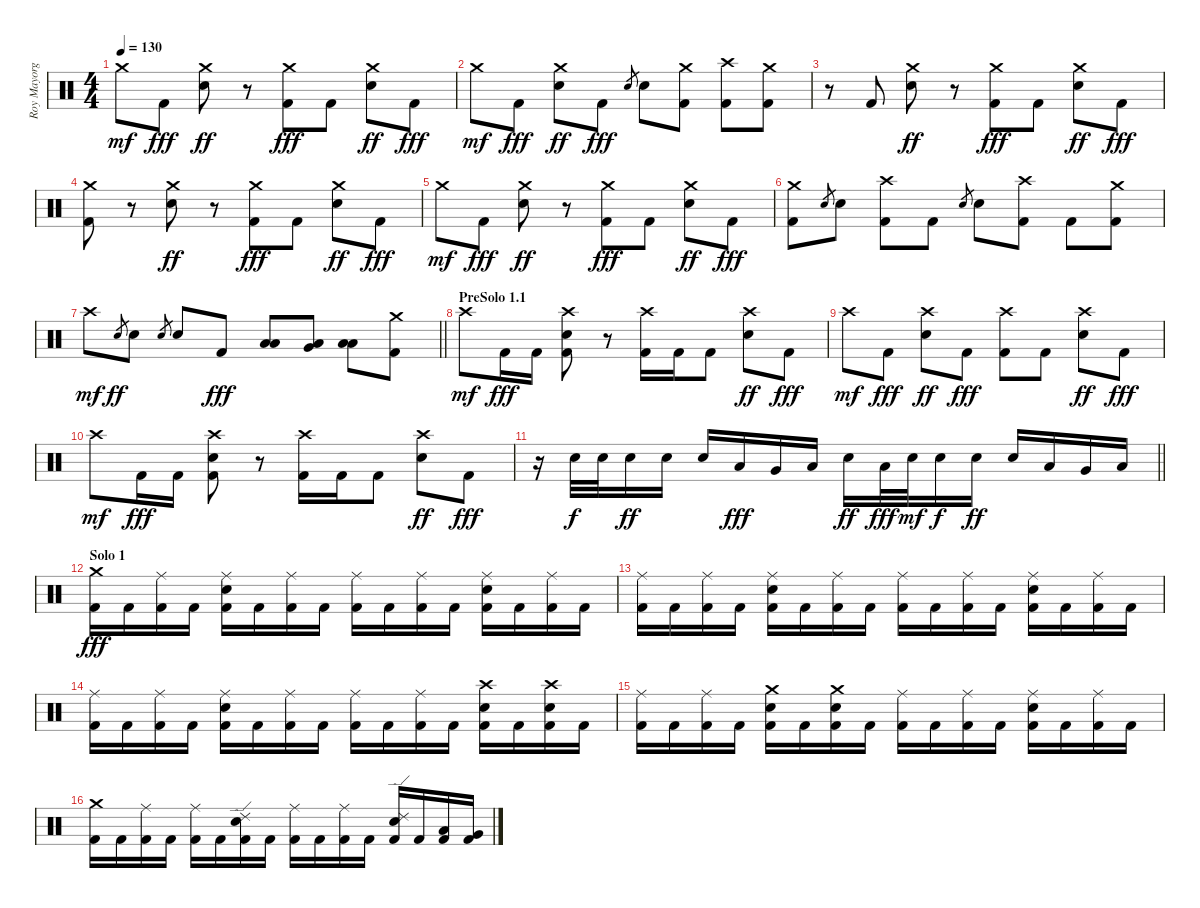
\track ("Roy Mayorga" "Roy Mayorg") {instrument percussion}
\staff {score}
\articulation defaults
\ts (4 4)
\tempo 130
\clef neutral
\ks c "Crash medium (hit)".8{dy mf} "Kick (hit) 2".8{dy fff}
("Crash medium (hit)" "Electric Snare (hit)").8{dy ff} r.8 ("Crash medium (hit)" "Kick (hit) 2").8{dy fff} "Kick (hit) 2".8 ("Crash medium (hit)" "Electric Snare (hit)").8{dy ff} "Kick (hit) 2".8{dy fff} |
"Crash medium (hit)".8{dy mf} "Kick (hit) 2".8{dy fff} ("Crash medium (hit)" "Electric Snare (hit)").8{dy ff} "Kick (hit) 2".8{dy fff} "Electric Snare (hit)".8{gr} "Electric Snare (hit)".8 ("Crash medium (hit)" "Kick (hit) 2").8 ("Crash high (hit)" "Kick (hit) 2").8 ("Crash medium (hit)" "Kick (hit) 2").8 |
r.8 "Kick (hit) 2".8 ("Crash medium (hit)" "Electric Snare (hit)").8{dy ff} r.8 ("Crash medium (hit)" "Kick (hit) 2").8{dy fff} "Kick (hit) 2".8 ("Crash medium (hit)" "Electric Snare (hit)").8{dy ff} "Kick (hit) 2".8{dy fff} |
("Crash medium (hit)" "Kick (hit) 2").8 r.8 ("Crash medium (hit)" "Electric Snare (hit)").8{dy ff} r.8 ("Crash medium (hit)" "Kick (hit) 2").8{dy fff} "Kick (hit) 2".8 ("Crash medium (hit)" "Electric Snare (hit)").8{dy ff} "Kick (hit) 2".8{dy fff} |
"Crash medium (hit)".8{dy mf} "Kick (hit) 2".8{dy fff} ("Crash medium (hit)" "Electric Snare (hit)").8{dy ff} r.8 ("Crash medium (hit)" "Kick (hit) 2").8{dy fff} "Kick (hit) 2".8 ("Crash medium (hit)" "Electric Snare (hit)").8{dy ff} "Kick (hit) 2".8{dy fff} |
("Crash medium (hit)" "Kick (hit) 2").8 "Electric Snare (hit)".8{gr} "Electric Snare (hit)".8 ("Crash high (hit)" "Kick (hit) 2").8 "Kick (hit) 2".8 "Electric Snare (hit)".8{gr} "Electric Snare (hit)".8 ("Crash high (hit)" "Kick (hit) 2").8 "Kick (hit) 2".8 ("Crash medium (hit)" "Kick (hit) 2").8 |
\barLineRight lightlight "Crash high (hit)".8{dy mf} "Electric Snare (hit)".8{gr dy ff} "Electric Snare (hit)".8 "Electric Snare (hit)".8{gr} "Electric Snare (hit)".8 "Kick (hit) 2".8{dy fff}
("Low Tom (hit)" "Low Floor Tom (hit)").8 ("Very Low Tom (hit)" "Low Floor Tom (hit)").8 ("Low Floor Tom (hit)" "Low Floor Tom (hit)").8 ("Crash medium (hit)" "Kick (hit) 2").8 |
\section ("" "PreSolo 1.1")
"Crash high (hit)".8{dy mf} "Kick (hit) 2".16{dy fff} "Kick (hit) 2".16 ("Crash high (hit)" "Electric Snare (hit)" "Kick (hit) 2").8 r.8 ("Crash high (hit)" "Kick (hit) 2").16 "Kick (hit) 2".16 "Kick (hit) 2".8 ("Crash high (hit)" "Electric Snare (hit)").8{dy ff} "Kick (hit) 2".8{dy fff} |
"Crash high (hit)".8{dy mf} "Kick (hit) 2".8{dy fff} ("Crash high (hit)" "Electric Snare (hit)").8{dy ff} "Kick (hit) 2".8{dy fff} ("Crash high (hit)" "Kick (hit) 2").8 "Kick (hit) 2".8 ("Crash high (hit)" "Electric Snare (hit)").8{dy ff} "Kick (hit) 2".8{dy fff} |
"Crash high (hit)".8{dy mf} "Kick (hit) 2".16{dy fff} "Kick (hit) 2".16 ("Crash high (hit)" "Electric Snare (hit)" "Kick (hit) 2").8 r.8 ("Crash high (hit)" "Kick (hit) 2").16 "Kick (hit) 2".16 "Kick (hit) 2".8 ("Crash high (hit)" "Electric Snare (hit)").8{dy ff} "Kick (hit) 2".8{dy fff} |
\barLineRight lightlight
r.16 "Electric Snare (hit)".32{dy f} "Electric Snare (hit)".32 "Electric Snare (hit)".16{dy ff} "Electric Snare (hit)".16 "Electric Snare (hit)".16 "Low Tom (hit)".16{dy fff} "Very Low Tom (hit)".16 "Low Floor Tom (hit)".16 "Electric Snare (hit)".16{dy ff} "Low Tom (hit)".32{dy fff} "Electric Snare (hit)".32{dy mf} "Electric Snare (hit)".16{dy f} "Electric Snare (hit)".16{dy ff} "Electric Snare (hit)".16 "Low Tom (hit)".16 "Very Low Tom (hit)".16 "Low Floor Tom (hit)".16 |
\section ("" "Solo 1")
("Crash medium (hit)" "Kick (hit) 2").16{dy fff} "Kick (hit) 2".16 ("Ride (middle)" "Kick (hit) 2").16 "Kick (hit) 2".16 ("Ride (middle)" "Electric Snare (hit)" "Kick (hit) 2").16 "Kick (hit) 2".16 ("Ride (middle)" "Kick (hit) 2").16 "Kick (hit) 2".16 ("Ride (middle)" "Kick (hit) 2").16 "Kick (hit) 2".16 ("Ride (middle)" "Kick (hit) 2").16 "Kick (hit) 2".16 ("Ride (middle)" "Electric Snare (hit)" "Kick (hit) 2").16 "Kick (hit) 2".16 ("Ride (middle)" "Kick (hit) 2").16 "Kick (hit) 2".16 |
("Ride (middle)" "Kick (hit) 2").16 "Kick (hit) 2".16 ("Ride (middle)" "Kick (hit) 2").16 "Kick (hit) 2".16 ("Ride (middle)" "Electric Snare (hit)" "Kick (hit) 2").16 "Kick (hit) 2".16 ("Ride (middle)" "Kick (hit) 2").16 "Kick (hit) 2".16 ("Ride (middle)" "Kick (hit) 2").16 "Kick (hit) 2".16 ("Ride (middle)" "Kick (hit) 2").16 "Kick (hit) 2".16 ("Ride (middle)" "Electric Snare (hit)" "Kick (hit) 2").16 "Kick (hit) 2".16 ("Ride (middle)" "Kick (hit) 2").16 "Kick (hit) 2".16 |
("Ride (middle)" "Kick (hit) 2").16 "Kick (hit) 2".16 ("Ride (middle)" "Kick (hit) 2").16 "Kick (hit) 2".16 ("Ride (middle)" "Electric Snare (hit)" "Kick (hit) 2").16 "Kick (hit) 2".16 ("Ride (middle)" "Kick (hit) 2").16 "Kick (hit) 2".16 ("Ride (middle)" "Kick (hit) 2").16 "Kick (hit) 2".16 ("Ride (middle)" "Kick (hit) 2").16 "Kick (hit) 2".16 ("Crash high (hit)" "Electric Snare (hit)" "Kick (hit) 2").16 "Kick (hit) 2".16 ("Crash high (hit)" "Electric Snare (hit)" "Kick (hit) 2").16 "Kick (hit) 2".16 |
("Ride (middle)" "Kick (hit) 2").16 "Kick (hit) 2".16 ("Ride (middle)" "Kick (hit) 2").16 "Kick (hit) 2".16 ("Crash medium (hit)" "Electric Snare (hit)" "Kick (hit) 2").16 "Kick (hit) 2".16 ("Crash medium (hit)" "Electric Snare (hit)" "Kick (hit) 2").16 "Kick (hit) 2".16 ("Ride (middle)" "Kick (hit) 2").16 "Kick (hit) 2".16 ("Ride (middle)" "Kick (hit) 2").16 "Kick (hit) 2".16 ("Ride (middle)" "Electric Snare (hit)" "Kick (hit) 2").16 "Kick (hit) 2".16 ("Ride (middle)" "Kick (hit) 2").16 "Kick (hit) 2".16 |
("Crash medium (hit)" "Kick (hit) 2").16 "Kick (hit) 2".16 ("Ride (middle)" "Kick (hit) 2").16 "Kick (hit) 2".16 ("Ride (middle)" "Kick (hit) 2").16 "Kick (hit) 2".16 ("Ride (edge) 2" "Electric Snare (hit)" "Kick (hit) 2").16 "Kick (hit) 2".16 ("Ride (middle)" "Kick (hit) 2").16 "Kick (hit) 2".16 ("Ride (middle)" "Kick (hit) 2").16 "Kick (hit) 2".16 ("Ride (edge) 2" "Electric Snare (hit)" "Kick (hit) 2").16 "Kick (hit) 2".16 ("Low Tom (hit)" "Kick (hit) 2").16 ("Very Low Tom (hit)" "Kick (hit) 2").16
